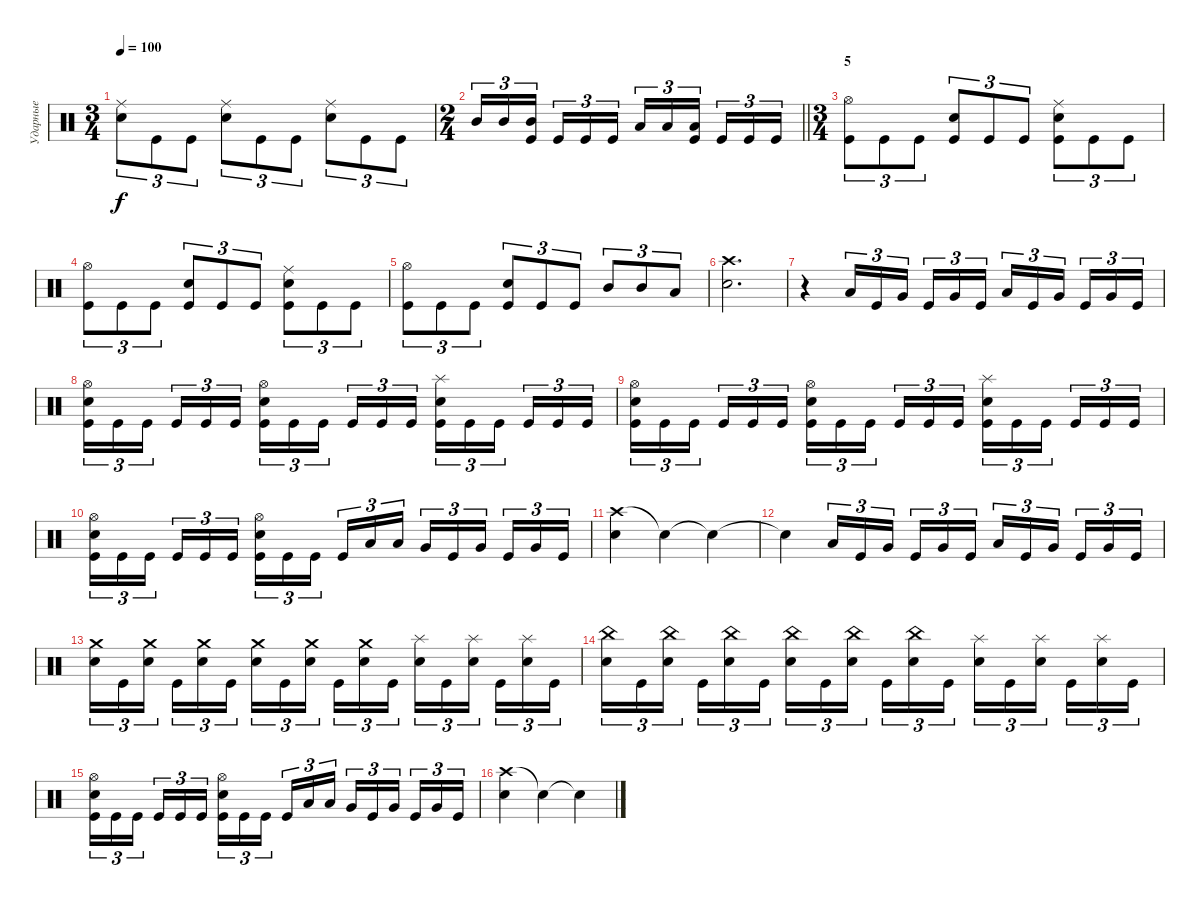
\track ("Ударные" "Ударные") {instrument percussion}
\staff {score}
\articulation defaults
\ts (3 4)
\tempo 100
\clef neutral
\ks c
("Ride (middle)" "Electric Snare (hit)").8{tu (3 2) dy f} "Kick (hit)".8{tu (3 2)} "Kick (hit)".8{tu (3 2)} ("Ride (middle)" "Electric Snare (hit)").8{tu (3 2)} "Kick (hit)".8{tu (3 2)} "Kick (hit)".8{tu (3 2)} ("Ride (middle)" "Electric Snare (hit)").8{tu (3 2)} "Kick (hit)".8{tu (3 2)} "Kick (hit)".8{tu (3 2)} |
\ts (2 4)
\barLineRight lightlight "Mid Tom (hit)".16{tu (3 2)} "Mid Tom (hit)".16{tu (3 2)}
("Mid Tom (hit)" "Kick (hit)").16{tu (3 2) beam splitsecondary} "Kick (hit)".16{tu (3 2)} "Kick (hit)".16{tu (3 2)} "Kick (hit)".16{tu (3 2)} "Low Tom (hit)".16{tu (3 2)} "Low Tom (hit)".16{tu (3 2)} ("Low Tom (hit)" "Kick (hit)").16{tu (3 2) beam splitsecondary} "Kick (hit)".16{tu (3 2)} "Kick (hit)".16{tu (3 2)} "Kick (hit)".16{tu (3 2)} |
\ts (3 4)
\section ("" "5")
("Hi-Hat (open)" "Kick (hit)").8{tu (3 2)} "Kick (hit)".8{tu (3 2)} "Kick (hit)".8{tu (3 2)} ("Electric Snare (hit)" "Kick (hit)").8{tu (3 2)} "Kick (hit)".8{tu (3 2)} "Kick (hit)".8{tu (3 2)} ("Ride (middle)" "Electric Snare (hit)" "Kick (hit)").8{tu (3 2)} "Kick (hit)".8{tu (3 2)} "Kick (hit)".8{tu (3 2)} |
("Hi-Hat (open)" "Kick (hit)").8{tu (3 2)} "Kick (hit)".8{tu (3 2)} "Kick (hit)".8{tu (3 2)} ("Electric Snare (hit)" "Kick (hit)").8{tu (3 2)} "Kick (hit)".8{tu (3 2)} "Kick (hit)".8{tu (3 2)} ("Ride (middle)" "Electric Snare (hit)" "Kick (hit)").8{tu (3 2)} "Kick (hit)".8{tu (3 2)} "Kick (hit)".8{tu (3 2)} |
("Hi-Hat (open)" "Kick (hit)").8{tu (3 2)} "Kick (hit)".8{tu (3 2)} "Kick (hit)".8{tu (3 2)} ("Electric Snare (hit)" "Kick (hit)").8{tu (3 2)} "Kick (hit)".8{tu (3 2)} "Kick (hit)".8{tu (3 2)} "Mid Tom (hit)".8{tu (3 2)} "Mid Tom (hit)".8{tu (3 2)} "Low Tom (hit)".8{tu (3 2)} |
("Crash high (hit)" "Electric Snare (hit)").2{d} |
r.4 "Low Tom (hit)".16{tu (3 2)} "Kick (hit)".16{tu (3 2)} "Very Low Tom (hit)".16{tu (3 2) beam splitsecondary} "Kick (hit)".16{tu (3 2)} "Very Low Tom (hit)".16{tu (3 2)} "Kick (hit)".16{tu (3 2)} "Low Tom (hit)".16{tu (3 2)} "Kick (hit)".16{tu (3 2)} "Very Low Tom (hit)".16{tu (3 2) beam splitsecondary} "Kick (hit)".16{tu (3 2)} "Very Low Tom (hit)".16{tu (3 2)} "Kick (hit)".16{tu (3 2)} |
("Hi-Hat (open)" "Electric Snare (hit)" "Kick (hit)").16{tu (3 2)} "Kick (hit)".16{tu (3 2)} "Kick (hit)".16{tu (3 2) beam splitsecondary} "Kick (hit)".16{tu (3 2)} "Kick (hit)".16{tu (3 2)} "Kick (hit)".16{tu (3 2)} ("Hi-Hat (open)" "Electric Snare (hit)" "Kick (hit)").16{tu (3 2)} "Kick (hit)".16{tu (3 2)} "Kick (hit)".16{tu (3 2) beam splitsecondary} "Kick (hit)".16{tu (3 2)} "Kick (hit)".16{tu (3 2)} "Kick (hit)".16{tu (3 2)} ("Splash (hit)" "Electric Snare (hit)" "Kick (hit)").16{tu (3 2)} "Kick (hit)".16{tu (3 2)} "Kick (hit)".16{tu (3 2) beam splitsecondary} "Kick (hit)".16{tu (3 2)} "Kick (hit)".16{tu (3 2)} "Kick (hit)".16{tu (3 2)} |
("Hi-Hat (open)" "Electric Snare (hit)" "Kick (hit)").16{tu (3 2)} "Kick (hit)".16{tu (3 2)} "Kick (hit)".16{tu (3 2) beam splitsecondary} "Kick (hit)".16{tu (3 2)} "Kick (hit)".16{tu (3 2)} "Kick (hit)".16{tu (3 2)} ("Hi-Hat (open)" "Electric Snare (hit)" "Kick (hit)").16{tu (3 2)} "Kick (hit)".16{tu (3 2)} "Kick (hit)".16{tu (3 2) beam splitsecondary} "Kick (hit)".16{tu (3 2)} "Kick (hit)".16{tu (3 2)} "Kick (hit)".16{tu (3 2)} ("Splash (hit)" "Electric Snare (hit)" "Kick (hit)").16{tu (3 2)} "Kick (hit)".16{tu (3 2)} "Kick (hit)".16{tu (3 2) beam splitsecondary} "Kick (hit)".16{tu (3 2)} "Kick (hit)".16{tu (3 2)} "Kick (hit)".16{tu (3 2)} |
("Hi-Hat (open)" "Electric Snare (hit)" "Kick (hit)").16{tu (3 2)} "Kick (hit)".16{tu (3 2)} "Kick (hit)".16{tu (3 2) beam splitsecondary} "Kick (hit)".16{tu (3 2)} "Kick (hit)".16{tu (3 2)} "Kick (hit)".16{tu (3 2)} ("Hi-Hat (open)" "Electric Snare (hit)" "Kick (hit)").16{tu (3 2)} "Kick (hit)".16{tu (3 2)} "Kick (hit)".16{tu (3 2) beam splitsecondary} "Kick (hit)".16{tu (3 2)} "Low Tom (hit)".16{tu (3 2)} "Low Tom (hit)".16{tu (3 2)} "Very Low Tom (hit)".16{tu (3 2)} "Kick (hit)".16{tu (3 2)} "Very Low Tom (hit)".16{tu (3 2) beam splitsecondary} "Kick (hit)".16{tu (3 2)} "Very Low Tom (hit)".16{tu (3 2)} "Kick (hit)".16{tu (3 2)} |
("Crash high (hit)" "Electric Snare (hit)").4 "Snare (hit)"{t}.4 "Snare (hit)"{t}.4 |
"Snare (hit)"{t}.4 "Low Tom (hit)".16{tu (3 2)} "Kick (hit)".16{tu (3 2)} "Very Low Tom (hit)".16{tu (3 2) beam splitsecondary} "Kick (hit)".16{tu (3 2)} "Very Low Tom (hit)".16{tu (3 2)} "Kick (hit)".16{tu (3 2)} "Low Tom (hit)".16{tu (3 2)} "Kick (hit)".16{tu (3 2)} "Very Low Tom (hit)".16{tu (3 2) beam splitsecondary} "Kick (hit)".16{tu (3 2)} "Very Low Tom (hit)".16{tu (3 2)} "Kick (hit)".16{tu (3 2)} |
("Crash medium (hit)" "Electric Snare (hit)").16{tu (3 2)} "Kick (hit)".16{tu (3 2)} ("Crash medium (hit)" "Electric Snare (hit)").16{tu (3 2) beam splitsecondary} "Kick (hit)".16{tu (3 2)} ("Crash medium (hit)" "Electric Snare (hit)").16{tu (3 2)} "Kick (hit)".16{tu (3 2)} ("Crash medium (hit)" "Electric Snare (hit)").16{tu (3 2)} "Kick (hit)".16{tu (3 2)} ("Crash medium (hit)" "Electric Snare (hit)").16{tu (3 2) beam splitsecondary} "Kick (hit)".16{tu (3 2)} ("Crash medium (hit)" "Electric Snare (hit)").16{tu (3 2)} "Kick (hit)".16{tu (3 2)} ("Splash (hit)" "Electric Snare (hit)").16{tu (3 2)} "Kick (hit)".16{tu (3 2)} ("Splash (hit)" "Electric Snare (hit)").16{tu (3 2) beam splitsecondary} "Kick (hit)".16{tu (3 2)} ("Splash (hit)" "Electric Snare (hit)").16{tu (3 2)} "Kick (hit)".16{tu (3 2)} |
("China (hit)" "Electric Snare (hit)").16{tu (3 2)} "Kick (hit)".16{tu (3 2)} ("China (hit)" "Electric Snare (hit)").16{tu (3 2) beam splitsecondary} "Kick (hit)".16{tu (3 2)} ("China (hit)" "Electric Snare (hit)").16{tu (3 2)} "Kick (hit)".16{tu (3 2)} ("China (hit)" "Electric Snare (hit)").16{tu (3 2)} "Kick (hit)".16{tu (3 2)} ("China (hit)" "Electric Snare (hit)").16{tu (3 2) beam splitsecondary} "Kick (hit)".16{tu (3 2)} ("China (hit)" "Electric Snare (hit)").16{tu (3 2)} "Kick (hit)".16{tu (3 2)} ("Splash (hit)" "Electric Snare (hit)").16{tu (3 2)} "Kick (hit)".16{tu (3 2)} ("Splash (hit)" "Electric Snare (hit)").16{tu (3 2) beam splitsecondary} "Kick (hit)".16{tu (3 2)} ("Splash (hit)" "Electric Snare (hit)").16{tu (3 2)} "Kick (hit)".16{tu (3 2)} |
("Hi-Hat (open)" "Electric Snare (hit)" "Kick (hit)").16{tu (3 2)} "Kick (hit)".16{tu (3 2)} "Kick (hit)".16{tu (3 2) beam splitsecondary} "Kick (hit)".16{tu (3 2)} "Kick (hit)".16{tu (3 2)} "Kick (hit)".16{tu (3 2)} ("Hi-Hat (open)" "Electric Snare (hit)" "Kick (hit)").16{tu (3 2)} "Kick (hit)".16{tu (3 2)} "Kick (hit)".16{tu (3 2) beam splitsecondary} "Kick (hit)".16{tu (3 2)} "Low Tom (hit)".16{tu (3 2)} "Low Tom (hit)".16{tu (3 2)} "Very Low Tom (hit)".16{tu (3 2)} "Kick (hit)".16{tu (3 2)} "Very Low Tom (hit)".16{tu (3 2) beam splitsecondary} "Kick (hit)".16{tu (3 2)} "Very Low Tom (hit)".16{tu (3 2)} "Kick (hit)".16{tu (3 2)} |
("Crash high (hit)" "Electric Snare (hit)").4 "Snare (hit)"{t}.4 "Snare (hit)"{t}.4
